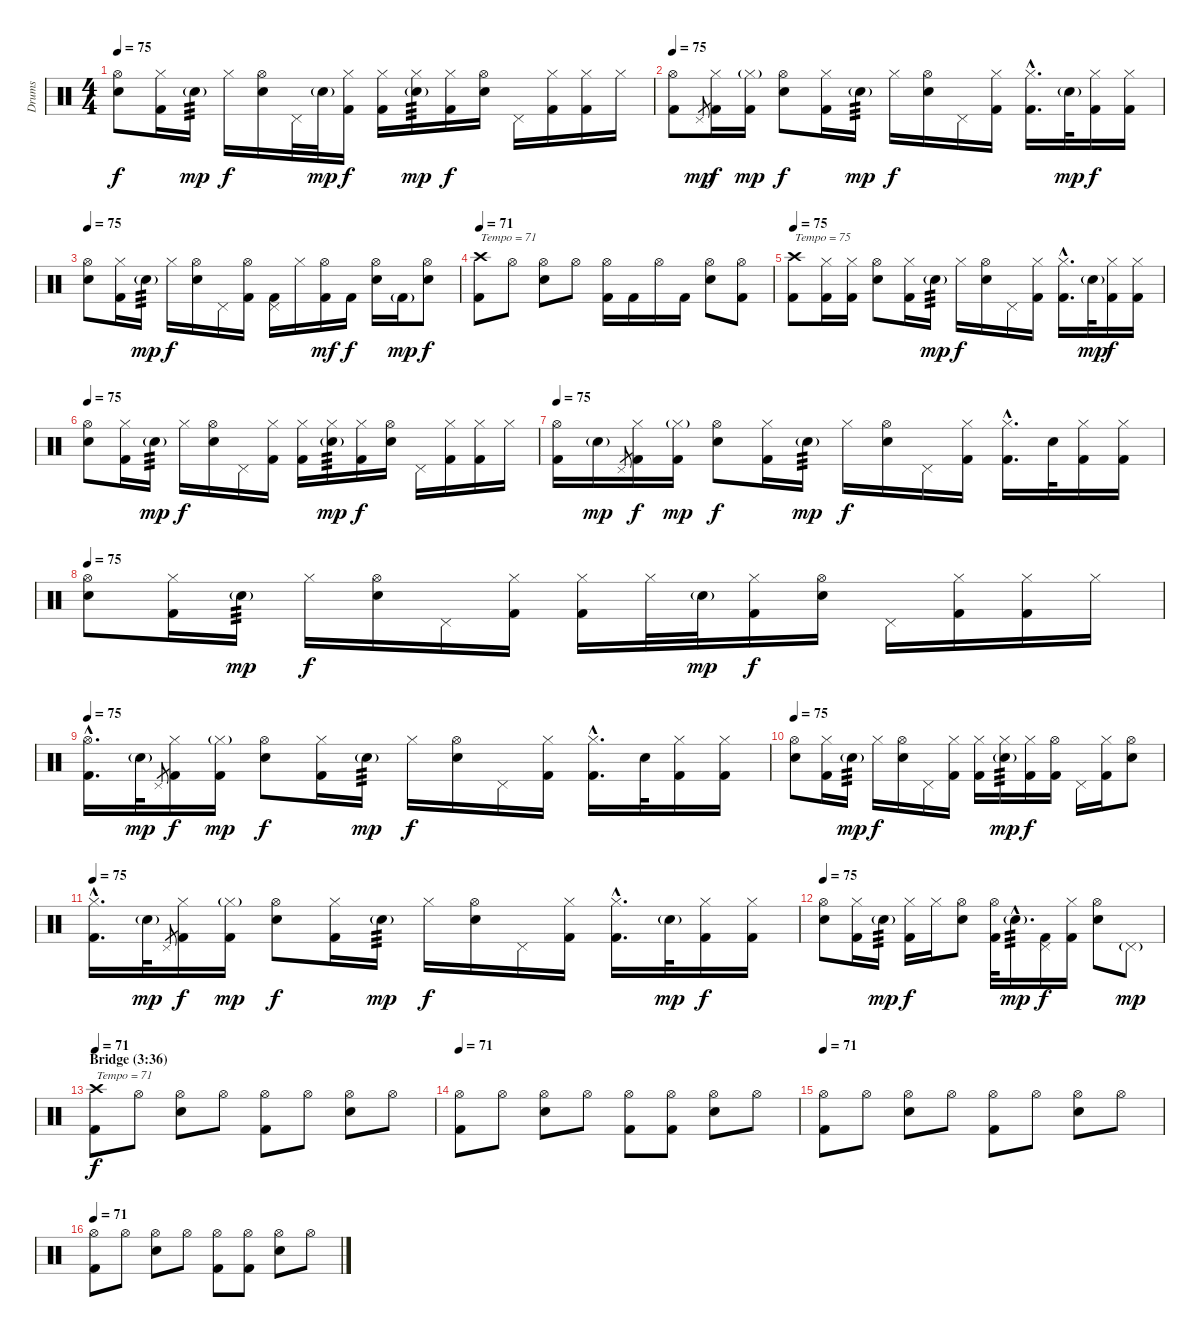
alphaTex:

\track ("Drums" "Drums") {instrument percussion}
\staff {score}
\articulation defaults
\ts (4 4)
\tempo 75
\clef neutral
\ks c
("Hi-Hat (open)" "Snare (hit) 2").8{dy f} ("Hi-Hat (closed)" "Kick (hit) 2").16 "Snare (hit) 2"{g}.16{tp 3 dy mp} "Hi-Hat (closed)".16{dy f} ("Hi-Hat (open)" "Snare (hit) 2").16 "Pedal Hi-Hat (hit)".32 "Snare (hit) 2"{g}.32{dy mp} ("Hi-Hat (closed)" "Kick (hit) 2").16{dy f} ("Hi-Hat (closed)" "Kick (hit) 2").16 ("Hi-Hat (closed)" "Snare (hit) 2"{g}).16{tp 3 dy mp} ("Hi-Hat (closed)" "Kick (hit) 2").16{dy f} ("Hi-Hat (open)" "Snare (hit) 2").16 "Pedal Hi-Hat (hit)".16 ("Hi-Hat (closed)" "Kick (hit) 2").16 ("Hi-Hat (closed)" "Kick (hit) 2").16 "Hi-Hat (closed)".16 |
\tempo 75
("Hi-Hat (open)" "Kick (hit) 2").8 "Pedal Hi-Hat (hit)".8{gr dy mp} ("Hi-Hat (closed)" "Kick (hit) 2").16{dy f} ("Hi-Hat (closed)"{g} "Kick (hit) 2").16{dy mp} ("Hi-Hat (open)" "Snare (hit) 2").8{dy f} ("Hi-Hat (closed)" "Kick (hit) 2").16 "Snare (hit) 2"{g}.16{tp 3 dy mp} "Hi-Hat (closed)".16{dy f} ("Hi-Hat (open)" "Snare (hit) 2").16 "Pedal Hi-Hat (hit)".16 ("Hi-Hat (closed)" "Kick (hit) 2").16 ("Hi-Hat (closed)"{hac} "Kick (hit) 2"{hac}).16{d} "Snare (hit) 2"{g}.32{dy mp} ("Hi-Hat (closed)" "Kick (hit) 2").16{dy f} ("Hi-Hat (closed)" "Kick (hit) 2").16 |
\tempo 75
("Hi-Hat (open)" "Snare (hit) 2").8 ("Hi-Hat (closed)" "Kick (hit) 2").16 "Snare (hit) 2"{g}.16{tp 3 dy mp} "Hi-Hat (closed)".16{dy f} ("Hi-Hat (open)" "Snare (hit) 2").16 "Pedal Hi-Hat (hit)".16 ("Hi-Hat (open)" "Kick (hit) 2").16 ("Pedal Hi-Hat (hit)" "Kick (hit) 2").16 "Hi-Hat (closed)".16 ("Hi-Hat (open)" "Kick (hit) 2").16{dy mf} "Kick (hit) 2".16{dy f} ("Hi-Hat (open)" "Snare (hit) 2").16 "Kick (hit) 2"{g}.16{dy mp} ("Hi-Hat (open)" "Snare (hit) 2").8{dy f} |
\tempo 71
("Crash high (hit)" "Kick (hit) 2").8{txt "Tempo = 71"} "Hi-Hat (open)".8 ("Hi-Hat (open)" "Snare (hit) 2").8 "Hi-Hat (open)".8 ("Hi-Hat (open)" "Kick (hit) 2").16 "Kick (hit) 2".16 "Hi-Hat (open)".16 "Kick (hit) 2".16 ("Hi-Hat (open)" "Snare (hit) 2").8 ("Hi-Hat (open)" "Kick (hit) 2").8 |
\tempo 75
("Crash high (hit)" "Kick (hit) 2").8{txt "Tempo = 75"} ("Hi-Hat (closed)" "Kick (hit) 2").16 ("Hi-Hat (closed)" "Kick (hit) 2").16 ("Hi-Hat (open)" "Snare (hit) 2").8 ("Hi-Hat (closed)" "Kick (hit) 2").16 "Snare (hit) 2"{g}.16{tp 3 dy mp} "Hi-Hat (closed)".16{dy f} ("Hi-Hat (open)" "Snare (hit) 2").16 "Pedal Hi-Hat (hit)".16 ("Hi-Hat (closed)" "Kick (hit) 2").16 ("Hi-Hat (closed)"{hac} "Kick (hit) 2"{hac}).16{d} "Snare (hit) 2"{g}.32{dy mp} ("Hi-Hat (closed)" "Kick (hit) 2").16{dy f} ("Hi-Hat (closed)" "Kick (hit) 2").16 |
\tempo 75
("Hi-Hat (open)" "Snare (hit) 2").8 ("Hi-Hat (closed)" "Kick (hit) 2").16 "Snare (hit) 2"{g}.16{tp 3 dy mp} "Hi-Hat (closed)".16{dy f} ("Hi-Hat (open)" "Snare (hit) 2").16 "Pedal Hi-Hat (hit)".16 ("Hi-Hat (closed)" "Kick (hit) 2").16 ("Hi-Hat (closed)" "Kick (hit) 2").16 ("Hi-Hat (closed)" "Snare (hit) 2"{g}).16{tp 3 dy mp} ("Hi-Hat (closed)" "Kick (hit) 2").16{dy f} ("Hi-Hat (open)" "Snare (hit) 2").16 "Pedal Hi-Hat (hit)".16 ("Hi-Hat (closed)" "Kick (hit) 2").16 ("Hi-Hat (closed)" "Kick (hit) 2").16 "Hi-Hat (closed)".16 |
\tempo 75
("Hi-Hat (open)" "Kick (hit) 2").16 "Snare (hit) 2"{g}.16{dy mp} "Pedal Hi-Hat (hit)".8{gr} ("Hi-Hat (closed)" "Kick (hit) 2").16{dy f} ("Hi-Hat (closed)"{g} "Kick (hit) 2").16{dy mp} ("Hi-Hat (open)" "Snare (hit) 2").8{dy f} ("Hi-Hat (closed)" "Kick (hit) 2").16 "Snare (hit) 2"{g}.16{tp 3 dy mp} "Hi-Hat (closed)".16{dy f} ("Hi-Hat (open)" "Snare (hit) 2").16 "Pedal Hi-Hat (hit)".16 ("Hi-Hat (closed)" "Kick (hit) 2").16 ("Hi-Hat (closed)"{hac} "Kick (hit) 2"{hac}).16{d} "Snare (hit) 2".32 ("Hi-Hat (closed)" "Kick (hit) 2").16 ("Hi-Hat (closed)" "Kick (hit) 2").16 |
\tempo 75
("Hi-Hat (open)" "Snare (hit) 2").8 ("Hi-Hat (closed)" "Kick (hit) 2").16 "Snare (hit) 2"{g}.16{tp 3 dy mp} "Hi-Hat (closed)".16{dy f} ("Hi-Hat (open)" "Snare (hit) 2").16 "Pedal Hi-Hat (hit)".16 ("Hi-Hat (closed)" "Kick (hit) 2").16 ("Hi-Hat (closed)" "Kick (hit) 2").16 "Hi-Hat (closed)".32 "Snare (hit) 2"{g}.32{dy mp} ("Hi-Hat (closed)" "Kick (hit) 2").16{dy f} ("Hi-Hat (open)" "Snare (hit) 2").16 "Pedal Hi-Hat (hit)".16 ("Hi-Hat (closed)" "Kick (hit) 2").16 ("Hi-Hat (closed)" "Kick (hit) 2").16 "Hi-Hat (closed)".16 |
\tempo 75
("Hi-Hat (open)"{hac} "Kick (hit) 2"{hac}).16{d} "Snare (hit) 2"{g}.32{dy mp} "Pedal Hi-Hat (hit)".8{gr} ("Hi-Hat (closed)" "Kick (hit) 2").16{dy f} ("Hi-Hat (closed)"{g} "Kick (hit) 2").16{dy mp} ("Hi-Hat (open)" "Snare (hit) 2").8{dy f} ("Hi-Hat (closed)" "Kick (hit) 2").16 "Snare (hit) 2"{g}.16{tp 3 dy mp} "Hi-Hat (closed)".16{dy f} ("Hi-Hat (open)" "Snare (hit) 2").16 "Pedal Hi-Hat (hit)".16 ("Hi-Hat (closed)" "Kick (hit) 2").16 ("Hi-Hat (closed)"{hac} "Kick (hit) 2"{hac}).16{d} "Snare (hit) 2".32 ("Hi-Hat (closed)" "Kick (hit) 2").16 ("Hi-Hat (closed)" "Kick (hit) 2").16 |
\tempo 75
("Hi-Hat (open)" "Snare (hit) 2").8 ("Hi-Hat (closed)" "Kick (hit) 2").16 "Snare (hit) 2"{g}.16{tp 3 dy mp} "Hi-Hat (closed)".16{dy f} ("Hi-Hat (open)" "Snare (hit) 2").16 "Pedal Hi-Hat (hit)".16 ("Hi-Hat (closed)" "Kick (hit) 2").16 ("Hi-Hat (closed)" "Kick (hit) 2").16 ("Hi-Hat (closed)" "Snare (hit) 2"{g}).16{tp 3 dy mp} ("Hi-Hat (closed)" "Kick (hit) 2").16{dy f} ("Hi-Hat (open)" "Kick (hit) 2").16 "Pedal Hi-Hat (hit)".16 ("Hi-Hat (closed)" "Kick (hit) 2").16 ("Hi-Hat (open)" "Snare (hit) 2").8 |
\tempo 75
("Hi-Hat (closed)"{hac} "Kick (hit) 2"{hac}).16{d} "Snare (hit) 2"{g}.32{dy mp} "Pedal Hi-Hat (hit)".8{gr} ("Hi-Hat (closed)" "Kick (hit) 2").16{dy f} ("Hi-Hat (closed)"{g} "Kick (hit) 2").16{dy mp} ("Hi-Hat (open)" "Snare (hit) 2").8{dy f} ("Hi-Hat (closed)" "Kick (hit) 2").16 "Snare (hit) 2"{g}.16{tp 3 dy mp} "Hi-Hat (closed)".16{dy f} ("Hi-Hat (open)" "Snare (hit) 2").16 "Pedal Hi-Hat (hit)".16 ("Hi-Hat (closed)" "Kick (hit) 2").16 ("Hi-Hat (closed)"{hac} "Kick (hit) 2"{hac}).16{d} "Snare (hit) 2"{g}.32{dy mp} ("Hi-Hat (closed)" "Kick (hit) 2").16{dy f} ("Hi-Hat (closed)" "Kick (hit) 2").16 |
\tempo 75
("Hi-Hat (open)" "Snare (hit) 2").8 ("Hi-Hat (closed)" "Kick (hit) 2").16 "Snare (hit) 2"{g}.16{tp 3 dy mp} ("Hi-Hat (closed)" "Kick (hit) 2").16{dy f} "Hi-Hat (closed)".16 ("Hi-Hat (open)" "Snare (hit) 2").8 ("Hi-Hat (open)" "Kick (hit) 2").32 "Snare (hit) 2"{g hac}.16{d tp 3 dy mp} ("Pedal Hi-Hat (hit)" "Kick (hit) 2").16{dy f} ("Hi-Hat (closed)" "Kick (hit) 2").16 ("Hi-Hat (open)" "Snare (hit) 2").8 "Pedal Hi-Hat (hit)"{g}.8{dy mp} |
\section ("" "Bridge (3:36)")
\tempo 71
("Crash high (hit)" "Kick (hit) 2").8{txt "Tempo = 71" dy f} "Hi-Hat (open)".8 ("Hi-Hat (open)" "Snare (hit) 2").8 "Hi-Hat (open)".8 ("Hi-Hat (open)" "Kick (hit) 2").8 "Hi-Hat (open)".8 ("Hi-Hat (open)" "Snare (hit) 2").8 "Hi-Hat (open)".8 |
\tempo 71
("Hi-Hat (open)" "Kick (hit) 2").8 "Hi-Hat (open)".8 ("Hi-Hat (open)" "Snare (hit) 2").8 "Hi-Hat (open)".8 ("Hi-Hat (open)" "Kick (hit) 2").8 ("Hi-Hat (open)" "Kick (hit) 2").8 ("Hi-Hat (open)" "Snare (hit) 2").8 "Hi-Hat (open)".8 |
\tempo 71
("Hi-Hat (open)" "Kick (hit) 2").8 "Hi-Hat (open)".8 ("Hi-Hat (open)" "Snare (hit) 2").8 "Hi-Hat (open)".8 ("Hi-Hat (open)" "Kick (hit) 2").8 "Hi-Hat (open)".8 ("Hi-Hat (open)" "Snare (hit) 2").8 "Hi-Hat (open)".8 |
\tempo 71
("Hi-Hat (open)" "Kick (hit) 2").8 "Hi-Hat (open)".8 ("Hi-Hat (open)" "Snare (hit) 2").8 "Hi-Hat (open)".8 ("Hi-Hat (open)" "Kick (hit) 2").8 ("Hi-Hat (open)" "Kick (hit) 2").8 ("Hi-Hat (open)" "Snare (hit) 2").8 "Hi-Hat (open)".8
